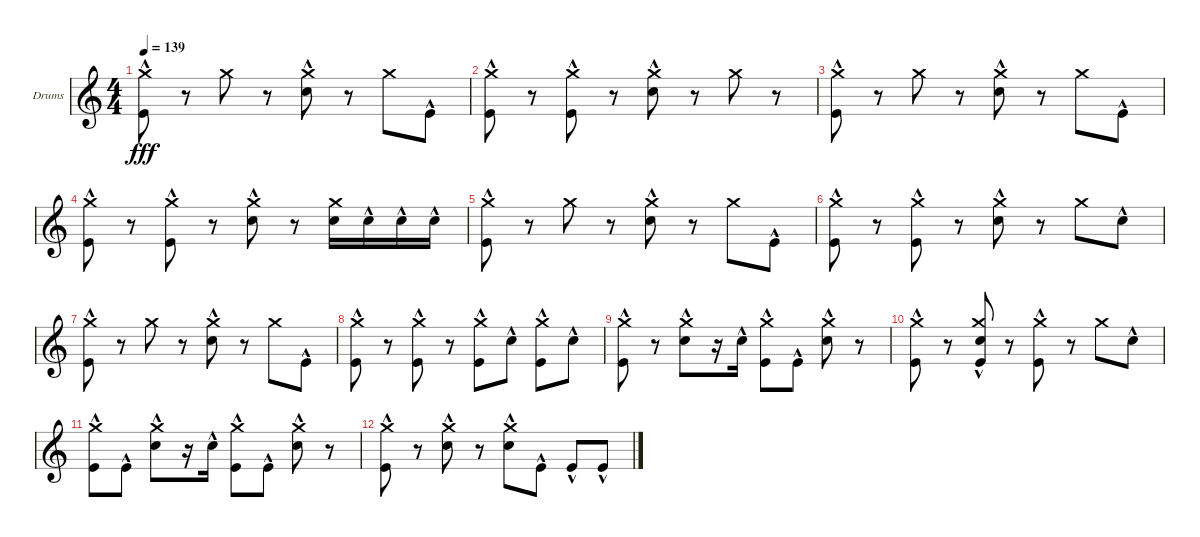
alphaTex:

\defaultSystemsLayout 4
\bracketExtendMode groupsimilarinstruments
\firstSystemTrackNameOrientation horizontal
\otherSystemsTrackNameOrientation horizontal
\track ("Drumkit" "Drums") {instrument percussion}
\staff {score}
\articulation defaults
\ts (4 4)
\tempo 139
\clef g2
\ks c
("Kick (hit)"{hac} "Crash medium (hit)").8{dy fff} r.8 "Crash medium (hit)".8 r.8 ("Crash medium (hit)" "Snare (hit) 2"{hac}).8 r.8 "Crash medium (hit)".8 "Kick (hit)"{hac}.8 |
("Kick (hit)"{hac} "Crash medium (hit)").8 r.8 ("Crash medium (hit)" "Kick (hit)"{hac}).8 r.8 ("Crash medium (hit)" "Snare (hit) 2"{hac}).8 r.8 "Crash medium (hit)".8 r.8 |
("Kick (hit)"{hac} "Crash medium (hit)").8 r.8 "Crash medium (hit)".8 r.8 ("Crash medium (hit)" "Snare (hit) 2"{hac}).8 r.8 "Crash medium (hit)".8 "Kick (hit)"{hac}.8 |
("Kick (hit)"{hac} "Crash medium (hit)").8 r.8 ("Crash medium (hit)" "Kick (hit)"{hac}).8 r.8 ("Crash medium (hit)" "Snare (hit) 2"{hac}).8 r.8 ("Crash medium (hit)" "Snare (hit) 2").16 "Snare (hit) 2"{hac}.16 "Snare (hit) 2"{hac}.16 "Snare (hit) 2"{hac}.16 |
("Kick (hit)"{hac} "Crash medium (hit)").8 r.8 "Crash medium (hit)".8 r.8 ("Crash medium (hit)" "Snare (hit) 2"{hac}).8 r.8 "Crash medium (hit)".8 "Kick (hit)"{hac}.8 |
("Kick (hit)"{hac} "Crash medium (hit)").8 r.8 ("Crash medium (hit)" "Kick (hit)"{hac}).8 r.8 ("Crash medium (hit)" "Snare (hit) 2"{hac}).8 r.8 "Crash medium (hit)".8 "Snare (hit) 2"{hac}.8 |
("Kick (hit)"{hac} "Crash medium (hit)").8 r.8 "Crash medium (hit)".8 r.8 ("Crash medium (hit)" "Snare (hit) 2"{hac}).8 r.8 "Crash medium (hit)".8 "Kick (hit)"{hac}.8 |
("Kick (hit)"{hac} "Crash medium (hit)").8 r.8 ("Crash medium (hit)" "Kick (hit)"{hac}).8 r.8 ("Kick (hit)"{hac} "Crash medium (hit)").8 "Snare (hit) 2"{hac}.8 ("Kick (hit)"{hac} "Crash medium (hit)").8 "Snare (hit) 2"{hac}.8 |
("Kick (hit)"{hac} "Crash medium (hit)").8 r.8 ("Snare (hit) 2"{hac} "Crash medium (hit)").8 r.16 "Snare (hit) 2"{hac}.16 ("Kick (hit)"{hac} "Crash medium (hit)").8 "Kick (hit)"{hac}.8 ("Snare (hit) 2"{hac} "Crash medium (hit)").8 r.8 |
("Crash medium (hit)" "Kick (hit)"{hac}).8 r.8 ("Crash medium (hit)" "Kick (hit)"{hac} "Snare (hit) 2"{hac}).8 r.8 ("Crash medium (hit)" "Kick (hit)"{hac}).8 r.8 "Crash medium (hit)".8 "Snare (hit) 2"{hac}.8 |
("Kick (hit)"{hac} "Crash medium (hit)").8 "Kick (hit)"{hac}.8 ("Snare (hit) 2"{hac} "Crash medium (hit)").8 r.16 "Snare (hit) 2"{hac}.16 ("Kick (hit)"{hac} "Crash medium (hit)").8 "Kick (hit)"{hac}.8 ("Snare (hit) 2"{hac} "Crash medium (hit)").8 r.8 |
("Kick (hit)"{hac} "Crash medium (hit)").8 r.8 ("Crash medium (hit)" "Snare (hit) 2"{hac}).8 r.8 ("Snare (hit) 2"{hac} "Crash medium (hit)").8 "Kick (hit)"{hac}.8 "Kick (hit)"{hac}.8 "Kick (hit)"{hac}.8
